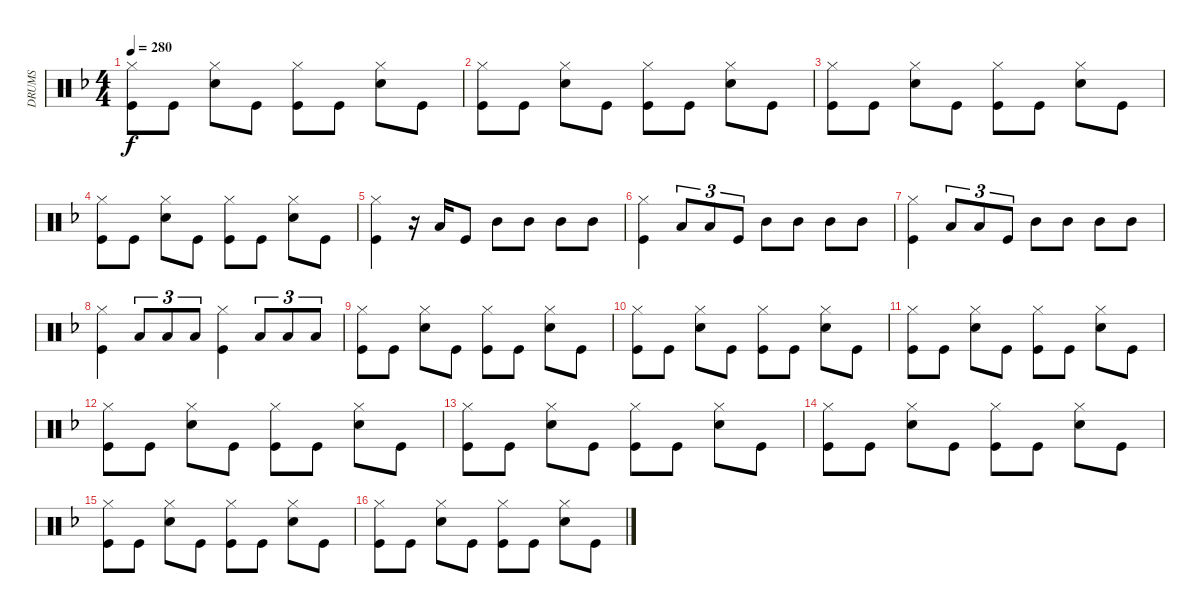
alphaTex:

\track ("DRUMS" "DRUMS") {instrument percussion}
\staff {score}
\articulation defaults
\ts (4 4)
\tempo 280
\clef neutral
\ks dminor
("Hi-Hat (closed)" "Kick (hit)").8{dy f} "Kick (hit)".8 ("Hi-Hat (closed)" "Snare (hit) 2").8 "Kick (hit)".8 ("Hi-Hat (closed)" "Kick (hit)").8 "Kick (hit)".8 ("Hi-Hat (closed)" "Snare (hit) 2").8 "Kick (hit)".8 |
("Hi-Hat (closed)" "Kick (hit)").8 "Kick (hit)".8 ("Hi-Hat (closed)" "Snare (hit) 2").8 "Kick (hit)".8 ("Hi-Hat (closed)" "Kick (hit)").8 "Kick (hit)".8 ("Hi-Hat (closed)" "Snare (hit) 2").8 "Kick (hit)".8 |
("Hi-Hat (closed)" "Kick (hit)").8 "Kick (hit)".8 ("Hi-Hat (closed)" "Snare (hit) 2").8 "Kick (hit)".8 ("Hi-Hat (closed)" "Kick (hit)").8 "Kick (hit)".8 ("Hi-Hat (closed)" "Snare (hit) 2").8 "Kick (hit)".8 |
("Hi-Hat (closed)" "Kick (hit)").8 "Kick (hit)".8 ("Hi-Hat (closed)" "Snare (hit) 2").8 "Kick (hit)".8 ("Hi-Hat (closed)" "Kick (hit)").8 "Kick (hit)".8 ("Hi-Hat (closed)" "Snare (hit) 2").8 "Kick (hit)".8 |
("Hi-Hat (closed)" "Kick (hit)").4 r.16 "Low Tom (hit)".16 "Kick (hit)".8 "Mid Tom (hit)".8 "Mid Tom (hit)".8 "Mid Tom (hit)".8 "Mid Tom (hit)".8 |
("Hi-Hat (closed)" "Kick (hit)").4 "Low Tom (hit)".8{tu (3 2)} "Low Tom (hit)".8{tu (3 2)} "Kick (hit)".8{tu (3 2)} "Mid Tom (hit)".8 "Mid Tom (hit)".8 "Mid Tom (hit)".8 "Mid Tom (hit)".8 |
("Hi-Hat (closed)" "Kick (hit)").4 "Low Tom (hit)".8{tu (3 2)} "Low Tom (hit)".8{tu (3 2)} "Kick (hit)".8{tu (3 2)} "Mid Tom (hit)".8 "Mid Tom (hit)".8 "Mid Tom (hit)".8 "Mid Tom (hit)".8 |
("Hi-Hat (closed)" "Kick (hit)").4 "Low Tom (hit)".8{tu (3 2)} "Low Tom (hit)".8{tu (3 2)} "Low Tom (hit)".8{tu (3 2)} ("Hi-Hat (closed)" "Kick (hit)").4 "Low Tom (hit)".8{tu (3 2)} "Low Tom (hit)".8{tu (3 2)} "Low Tom (hit)".8{tu (3 2)} |
("Hi-Hat (closed)" "Kick (hit)").8 "Kick (hit)".8 ("Hi-Hat (closed)" "Snare (hit) 2").8 "Kick (hit)".8 ("Hi-Hat (closed)" "Kick (hit)").8 "Kick (hit)".8 ("Hi-Hat (closed)" "Snare (hit) 2").8 "Kick (hit)".8 |
("Hi-Hat (closed)" "Kick (hit)").8 "Kick (hit)".8 ("Hi-Hat (closed)" "Snare (hit) 2").8 "Kick (hit)".8 ("Hi-Hat (closed)" "Kick (hit)").8 "Kick (hit)".8 ("Hi-Hat (closed)" "Snare (hit) 2").8 "Kick (hit)".8 |
("Hi-Hat (closed)" "Kick (hit)").8 "Kick (hit)".8 ("Hi-Hat (closed)" "Snare (hit) 2").8 "Kick (hit)".8 ("Hi-Hat (closed)" "Kick (hit)").8 "Kick (hit)".8 ("Hi-Hat (closed)" "Snare (hit) 2").8 "Kick (hit)".8 |
("Hi-Hat (closed)" "Kick (hit)").8 "Kick (hit)".8 ("Hi-Hat (closed)" "Snare (hit) 2").8 "Kick (hit)".8 ("Hi-Hat (closed)" "Kick (hit)").8 "Kick (hit)".8 ("Hi-Hat (closed)" "Snare (hit) 2").8 "Kick (hit)".8 |
("Hi-Hat (closed)" "Kick (hit)").8 "Kick (hit)".8 ("Hi-Hat (closed)" "Snare (hit) 2").8 "Kick (hit)".8 ("Hi-Hat (closed)" "Kick (hit)").8 "Kick (hit)".8 ("Hi-Hat (closed)" "Snare (hit) 2").8 "Kick (hit)".8 |
("Hi-Hat (closed)" "Kick (hit)").8 "Kick (hit)".8 ("Hi-Hat (closed)" "Snare (hit) 2").8 "Kick (hit)".8 ("Hi-Hat (closed)" "Kick (hit)").8 "Kick (hit)".8 ("Hi-Hat (closed)" "Snare (hit) 2").8 "Kick (hit)".8 |
("Hi-Hat (closed)" "Kick (hit)").8 "Kick (hit)".8 ("Hi-Hat (closed)" "Snare (hit) 2").8 "Kick (hit)".8 ("Hi-Hat (closed)" "Kick (hit)").8 "Kick (hit)".8 ("Hi-Hat (closed)" "Snare (hit) 2").8 "Kick (hit)".8 |
("Hi-Hat (closed)" "Kick (hit)").8 "Kick (hit)".8 ("Hi-Hat (closed)" "Snare (hit) 2").8 "Kick (hit)".8 ("Hi-Hat (closed)" "Kick (hit)").8 "Kick (hit)".8 ("Hi-Hat (closed)" "Snare (hit) 2").8 "Kick (hit)".8
